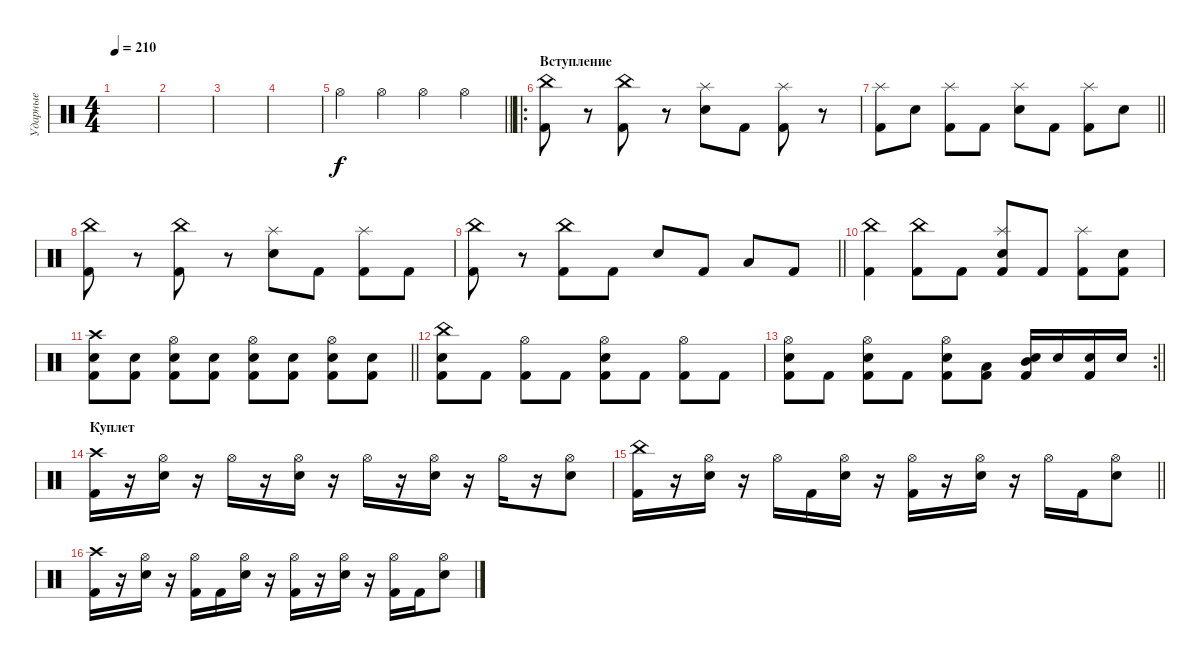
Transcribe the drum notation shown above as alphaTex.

\track ("Ударные" "Ударные") {mute instrument percussion}
\staff {score}
\articulation defaults
\ts (4 4)
\tempo 210
\clef neutral
\ks c
|
|
|
|
\barLineRight lightlight "Hi-Hat (open)".4 "Hi-Hat (open)".4 "Hi-Hat (open)".4 "Hi-Hat (open)".4
|
\ro
\section ("" "Вступление")
("China (hit)"{pm} "Kick (hit) 2").8 r.8 ("China (hit)"{pm} "Kick (hit) 2").8 r.8 ("Splash (hit)" "Electric Snare (hit)").8 "Kick (hit) 2".8 ("Splash (hit)" "Kick (hit) 2").8 r.8 |
\barLineRight lightlight
("Splash (hit)" "Kick (hit) 2").8 "Electric Snare (hit)".8 ("Splash (hit)" "Kick (hit) 2").8 "Kick (hit) 2".8 ("Splash (hit)" "Electric Snare (hit)").8 "Kick (hit) 2".8 ("Splash (hit)" "Kick (hit) 2").8 "Electric Snare (hit)".8 |
("China (hit)"{pm} "Kick (hit) 2").8{volume 14} r.8 ("China (hit)" "Kick (hit) 2").8 r.8 ("Splash (hit)" "Electric Snare (hit)").8{volume 13} "Kick (hit) 2".8 ("Splash (hit)" "Kick (hit) 2").8 "Kick (hit) 2".8 |
\barLineRight lightlight
("China (hit)" "Kick (hit) 2").8{volume 13} r.8 ("China (hit)"{pm} "Kick (hit) 2").8{volume 14} "Kick (hit) 2".8 "Electric Snare (hit)".8 "Kick (hit) 2".8 "Low Tom (hit)".8 "Kick (hit) 2".8 |
("China (hit)" "Kick (hit) 2").4 ("China (hit)" "Kick (hit) 2").8 "Kick (hit) 2".8 ("Splash (hit)" "Electric Snare (hit)" "Kick (hit) 2").8 "Kick (hit) 2".8 ("Splash (hit)" "Kick (hit) 2").8 ("Electric Snare (hit)" "Kick (hit) 2").8 |
\barLineRight lightlight
("Crash high (hit)" "Electric Snare (hit)" "Kick (hit) 2").8 ("Electric Snare (hit)" "Kick (hit) 2").8 ("Hi-Hat (open)" "Electric Snare (hit)" "Kick (hit) 2").8 ("Electric Snare (hit)" "Kick (hit) 2").8 ("Hi-Hat (open)" "Electric Snare (hit)" "Kick (hit) 2").8 ("Electric Snare (hit)" "Kick (hit) 2").8 ("Hi-Hat (open)" "Electric Snare (hit)" "Kick (hit) 2").8 ("Electric Snare (hit)" "Kick (hit) 2").8 |
("China (hit)" "Electric Snare (hit)" "Kick (hit) 2").8{volume 14} "Kick (hit) 2".8 ("Hi-Hat (open)" "Kick (hit) 2").8 "Kick (hit) 2".8 ("Hi-Hat (open)" "Electric Snare (hit)" "Kick (hit) 2").8{volume 13} "Kick (hit) 2".8 ("Hi-Hat (open)" "Kick (hit) 2").8 "Kick (hit) 2".8 |
\rc 2
\barLineRight lightlight
("Hi-Hat (open)" "Electric Snare (hit)" "Kick (hit) 2").8{volume 13} "Kick (hit) 2".8 ("Hi-Hat (open)" "Electric Snare (hit)" "Kick (hit) 2").8{volume 14} "Kick (hit) 2".8 ("Hi-Hat (open)" "Electric Snare (hit)" "Kick (hit) 2").8 ("Low Tom (hit)" "Kick (hit) 2").8 ("Mid Tom (hit)" "Electric Snare (hit)" "Kick (hit) 2").16 "Electric Snare (hit)".16 ("Electric Snare (hit)" "Kick (hit) 2").16 "Electric Snare (hit)".16 |
\section ("" "Куплет")
("Crash high (hit)" "Kick (hit) 2").16 r.16 ("Hi-Hat (open)" "Electric Snare (hit)").16 r.16 "Hi-Hat (open)".16 r.16 ("Hi-Hat (open)" "Electric Snare (hit)").16 r.16 "Hi-Hat (open)".16 r.16 ("Hi-Hat (open)" "Electric Snare (hit)").16 r.16 "Hi-Hat (open)".16 r.16 ("Hi-Hat (open)" "Electric Snare (hit)").8 |
\barLineRight lightlight
("China (hit)" "Kick (hit) 2").16 r.16 ("Hi-Hat (open)" "Electric Snare (hit)").16 r.16 "Hi-Hat (open)".16 "Kick (hit) 2".16 ("Hi-Hat (open)" "Electric Snare (hit)").16 r.16 ("Hi-Hat (open)" "Kick (hit) 2").16 r.16 ("Hi-Hat (open)" "Electric Snare (hit)").16 r.16 "Hi-Hat (open)".16 "Kick (hit) 2".16 ("Hi-Hat (open)" "Electric Snare (hit)").8 |
("Crash high (hit)" "Kick (hit) 2").16 r.16 ("Hi-Hat (open)" "Electric Snare (hit)").16 r.16 ("Hi-Hat (open)" "Kick (hit) 2").16 "Kick (hit) 2".16 ("Hi-Hat (open)" "Electric Snare (hit)").16 r.16 ("Hi-Hat (open)" "Kick (hit) 2").16 r.16 ("Hi-Hat (open)" "Electric Snare (hit)").16 r.16 ("Hi-Hat (open)" "Kick (hit) 2").16 "Kick (hit) 2".16 ("Hi-Hat (open)" "Electric Snare (hit)").8
